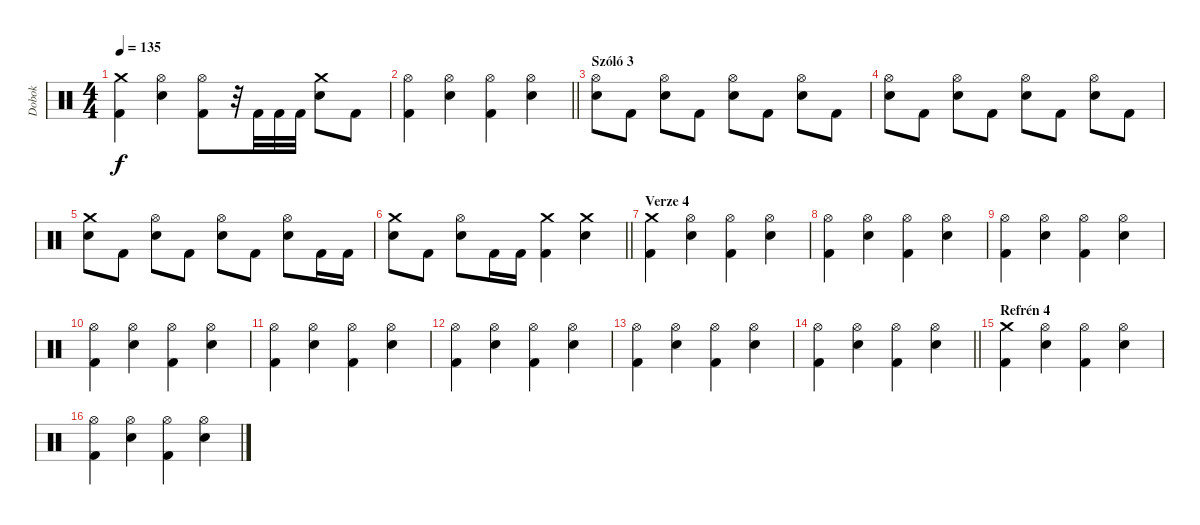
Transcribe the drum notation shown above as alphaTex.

\track ("Dobok" "Dobok") {instrument percussion}
\staff {score}
\articulation defaults
\ts (4 4)
\tempo 135
\clef neutral
\ks c
("Crash medium (hit)" "Kick (hit) 2").4{dy f} ("Hi-Hat (open)" "Electric Snare (hit)").4 ("Hi-Hat (open)" "Kick (hit) 2").8 r.32 "Kick (hit) 2".32 "Kick (hit) 2".32 "Kick (hit) 2".32 ("Crash medium (hit)" "Electric Snare (hit)").8 "Kick (hit) 2".8 |
\barLineRight lightlight
("Hi-Hat (open)" "Kick (hit) 2").4 ("Hi-Hat (open)" "Electric Snare (hit)").4 ("Hi-Hat (open)" "Kick (hit) 2").4 ("Hi-Hat (open)" "Electric Snare (hit)").4 |
\section ("" "Szóló 3")
("Hi-Hat (open)" "Electric Snare (hit)").8 "Kick (hit) 2".8 ("Hi-Hat (open)" "Electric Snare (hit)").8 "Kick (hit) 2".8 ("Hi-Hat (open)" "Electric Snare (hit)").8 "Kick (hit) 2".8 ("Hi-Hat (open)" "Electric Snare (hit)").8 "Kick (hit) 2".8 |
("Hi-Hat (open)" "Electric Snare (hit)").8 "Kick (hit) 2".8 ("Hi-Hat (open)" "Electric Snare (hit)").8 "Kick (hit) 2".8 ("Hi-Hat (open)" "Electric Snare (hit)").8 "Kick (hit) 2".8 ("Hi-Hat (open)" "Electric Snare (hit)").8 "Kick (hit) 2".8 |
("Crash medium (hit)" "Electric Snare (hit)").8 "Kick (hit) 2".8 ("Hi-Hat (open)" "Electric Snare (hit)").8 "Kick (hit) 2".8 ("Hi-Hat (open)" "Electric Snare (hit)").8 "Kick (hit) 2".8 ("Hi-Hat (open)" "Electric Snare (hit)").8 "Kick (hit) 2".16 "Kick (hit) 2".16 |
\barLineRight lightlight
("Crash medium (hit)" "Electric Snare (hit)").8 "Kick (hit) 2".8 ("Hi-Hat (open)" "Electric Snare (hit)").8 "Kick (hit) 2".16 "Kick (hit) 2".16 ("Crash medium (hit)" "Kick (hit) 2").4 ("Crash medium (hit)" "Electric Snare (hit)").4 |
\section ("" "Verze 4")
("Crash medium (hit)" "Kick (hit) 2").4 ("Hi-Hat (open)" "Electric Snare (hit)").4 ("Hi-Hat (open)" "Kick (hit) 2").4 ("Hi-Hat (open)" "Electric Snare (hit)").4 |
("Hi-Hat (open)" "Kick (hit) 2").4 ("Hi-Hat (open)" "Electric Snare (hit)").4 ("Hi-Hat (open)" "Kick (hit) 2").4 ("Hi-Hat (open)" "Electric Snare (hit)").4 |
("Hi-Hat (open)" "Kick (hit) 2").4 ("Hi-Hat (open)" "Electric Snare (hit)").4 ("Hi-Hat (open)" "Kick (hit) 2").4 ("Hi-Hat (open)" "Electric Snare (hit)").4 |
("Hi-Hat (open)" "Kick (hit) 2").4 ("Hi-Hat (open)" "Electric Snare (hit)").4 ("Hi-Hat (open)" "Kick (hit) 2").4 ("Hi-Hat (open)" "Electric Snare (hit)").4 |
("Hi-Hat (open)" "Kick (hit) 2").4 ("Hi-Hat (open)" "Electric Snare (hit)").4 ("Hi-Hat (open)" "Kick (hit) 2").4 ("Hi-Hat (open)" "Electric Snare (hit)").4 |
("Hi-Hat (open)" "Kick (hit) 2").4 ("Hi-Hat (open)" "Electric Snare (hit)").4 ("Hi-Hat (open)" "Kick (hit) 2").4 ("Hi-Hat (open)" "Electric Snare (hit)").4 |
("Hi-Hat (open)" "Kick (hit) 2").4 ("Hi-Hat (open)" "Electric Snare (hit)").4 ("Hi-Hat (open)" "Kick (hit) 2").4 ("Hi-Hat (open)" "Electric Snare (hit)").4 |
\barLineRight lightlight
("Hi-Hat (open)" "Kick (hit) 2").4 ("Hi-Hat (open)" "Electric Snare (hit)").4 ("Hi-Hat (open)" "Kick (hit) 2").4 ("Hi-Hat (open)" "Electric Snare (hit)").4 |
\section ("" "Refrén 4")
("Crash medium (hit)" "Kick (hit) 2").4 ("Hi-Hat (open)" "Electric Snare (hit)").4 ("Hi-Hat (open)" "Kick (hit) 2").4 ("Hi-Hat (open)" "Electric Snare (hit)").4 |
("Hi-Hat (open)" "Kick (hit) 2").4 ("Hi-Hat (open)" "Electric Snare (hit)").4 ("Hi-Hat (open)" "Kick (hit) 2").4 ("Hi-Hat (open)" "Electric Snare (hit)").4
